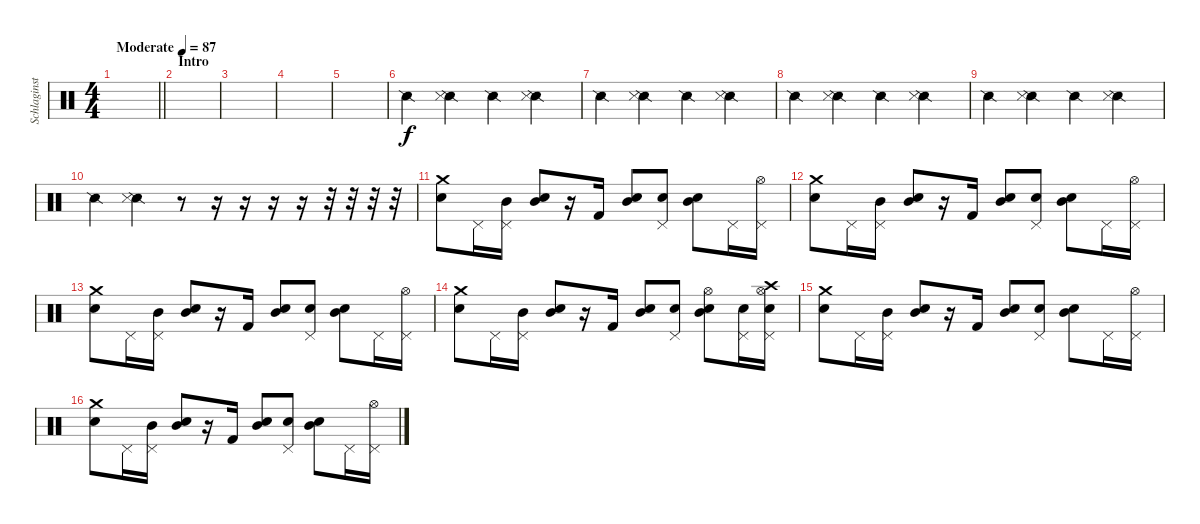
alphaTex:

\track ("Schlaginstrumente -  Auswahl" "Schlaginst") {instrument percussion}
\staff {score}
\articulation defaults
\ts (4 4)
\tempo (87 "Moderate")
\clef neutral
\barLineRight lightlight
\ks c
|
\section ("" "Intro")
|
|
|
|
"Snare (side stick) 2".4 ("Snare (side stick) 2" "Metronome (hit)").4 "Snare (side stick) 2".4 ("Snare (side stick) 2" "Metronome (hit)").4 |
"Snare (side stick) 2".4 ("Snare (side stick) 2" "Metronome (hit)").4 "Snare (side stick) 2".4 ("Snare (side stick) 2" "Metronome (hit)").4 |
"Snare (side stick) 2".4 ("Snare (side stick) 2" "Metronome (hit)").4 "Snare (side stick) 2".4 ("Snare (side stick) 2" "Metronome (hit)").4 |
"Snare (side stick) 2".4 ("Snare (side stick) 2" "Metronome (hit)").4 "Snare (side stick) 2".4 ("Snare (side stick) 2" "Metronome (hit)").4 |
"Snare (side stick) 2".4 ("Snare (side stick) 2" "Metronome (hit)").4 r.8 r.16 r.16 r.16 r.16 r.32 r.32 r.32 r.32 |
("Crash medium (hit)" "Snare (hit) 2").8 "Pedal Hi-Hat (hit)".16 ("Mid Tom (hit)" "Pedal Hi-Hat (hit)").16 ("Mid Tom (hit)" "Snare (hit) 2").8 r.16 "Kick (hit) 2".16 ("Mid Tom (hit)" "Snare (hit) 2").8 ("Snare (hit) 2" "Pedal Hi-Hat (hit)").8 ("Mid Tom (hit)" "Snare (hit) 2").8 "Pedal Hi-Hat (hit)".16 ("Hi-Hat (open)" "Pedal Hi-Hat (hit)").16 |
("Crash medium (hit)" "Snare (hit) 2").8 "Pedal Hi-Hat (hit)".16 ("Mid Tom (hit)" "Pedal Hi-Hat (hit)").16 ("Mid Tom (hit)" "Snare (hit) 2").8 r.16 "Kick (hit) 2".16 ("Mid Tom (hit)" "Snare (hit) 2").8 ("Snare (hit) 2" "Pedal Hi-Hat (hit)").8 ("Mid Tom (hit)" "Snare (hit) 2").8 "Pedal Hi-Hat (hit)".16 ("Hi-Hat (open)" "Pedal Hi-Hat (hit)").16 |
("Crash medium (hit)" "Snare (hit) 2").8 "Pedal Hi-Hat (hit)".16 ("Mid Tom (hit)" "Pedal Hi-Hat (hit)").16 ("Mid Tom (hit)" "Snare (hit) 2").8 r.16 "Kick (hit) 2".16 ("Mid Tom (hit)" "Snare (hit) 2").8 ("Snare (hit) 2" "Pedal Hi-Hat (hit)").8 ("Mid Tom (hit)" "Snare (hit) 2").8 "Pedal Hi-Hat (hit)".16 ("Hi-Hat (open)" "Pedal Hi-Hat (hit)").16 |
("Crash medium (hit)" "Snare (hit) 2").8 "Pedal Hi-Hat (hit)".16 ("Mid Tom (hit)" "Pedal Hi-Hat (hit)").16 ("Mid Tom (hit)" "Snare (hit) 2").8 r.16 "Kick (hit) 2".16 ("Mid Tom (hit)" "Snare (hit) 2").8 ("Snare (hit) 2" "Pedal Hi-Hat (hit)").8 ("Mid Tom (hit)" "Hi-Hat (open)" "Snare (hit) 2").8 ("Snare (hit) 2" "Pedal Hi-Hat (hit)").16 ("Hi-Hat (open)" "Crash high (hit)" "Snare (hit) 2" "Pedal Hi-Hat (hit)").16 |
("Crash medium (hit)" "Snare (hit) 2").8 "Pedal Hi-Hat (hit)".16 ("Mid Tom (hit)" "Pedal Hi-Hat (hit)").16 ("Mid Tom (hit)" "Snare (hit) 2").8 r.16 "Kick (hit) 2".16 ("Mid Tom (hit)" "Snare (hit) 2").8 ("Snare (hit) 2" "Pedal Hi-Hat (hit)").8 ("Mid Tom (hit)" "Snare (hit) 2").8 "Pedal Hi-Hat (hit)".16 ("Hi-Hat (open)" "Pedal Hi-Hat (hit)").16 |
("Crash medium (hit)" "Snare (hit) 2").8 "Pedal Hi-Hat (hit)".16 ("Mid Tom (hit)" "Pedal Hi-Hat (hit)").16 ("Mid Tom (hit)" "Snare (hit) 2").8 r.16 "Kick (hit) 2".16 ("Mid Tom (hit)" "Snare (hit) 2").8 ("Snare (hit) 2" "Pedal Hi-Hat (hit)").8 ("Mid Tom (hit)" "Snare (hit) 2").8 "Pedal Hi-Hat (hit)".16 ("Hi-Hat (open)" "Pedal Hi-Hat (hit)").16
